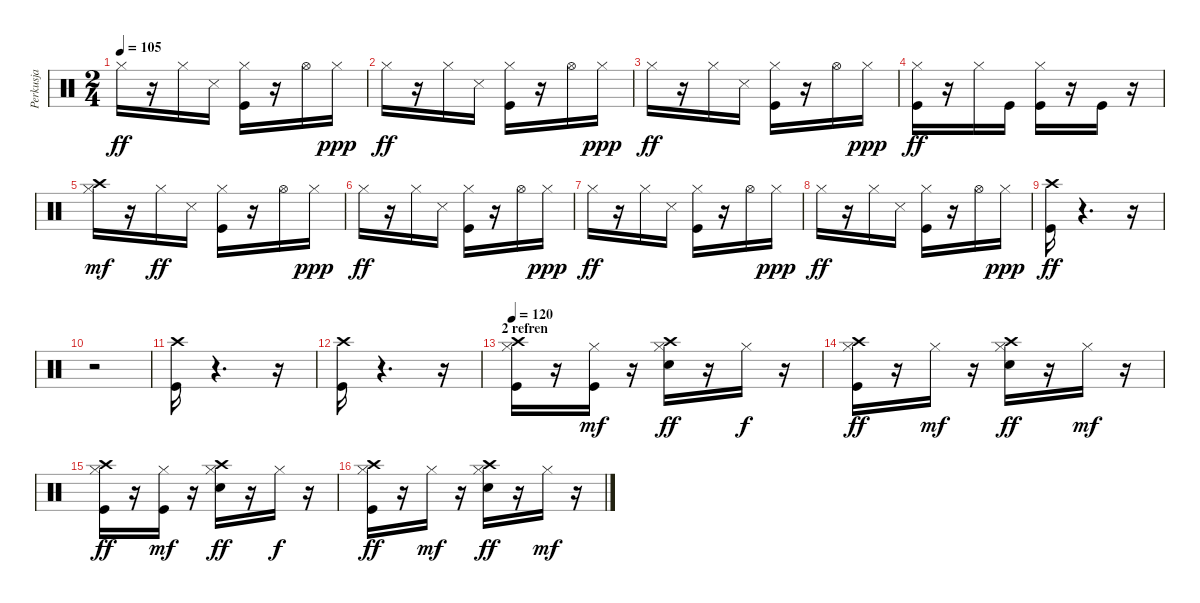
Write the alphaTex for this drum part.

\track ("Perkusja" "Perkusja") {instrument percussion}
\staff {score}
\articulation defaults
\ts (2 4)
\tempo 105
\clef neutral
\ks c "Hi-Hat (closed)".16{dy ff}
r.16 "Hi-Hat (closed)".16 "Snare (side stick) 3".16 ("Kick (hit)" "Hi-Hat (closed)").16 r.16 "Hi-Hat (open)".16 "Hi-Hat (closed)".16{dy ppp} |
"Hi-Hat (closed)".16{dy ff} r.16 "Hi-Hat (closed)".16 "Snare (side stick) 3".16 ("Kick (hit)" "Hi-Hat (closed)").16 r.16 "Hi-Hat (open)".16 "Hi-Hat (closed)".16{dy ppp} |
"Hi-Hat (closed)".16{dy ff} r.16 "Hi-Hat (closed)".16 "Snare (side stick) 3".16 ("Kick (hit)" "Hi-Hat (closed)").16 r.16 "Hi-Hat (open)".16 "Hi-Hat (closed)".16{dy ppp} |
("Kick (hit)" "Hi-Hat (closed)").16{dy ff} r.16 "Hi-Hat (closed)".16 "Kick (hit)".16 ("Kick (hit)" "Hi-Hat (closed)").16 r.16 "Kick (hit)".16 r.16 |
("Hi-Hat (closed)" "Crash high (hit)").16{dy mf} r.16 "Hi-Hat (closed)".16{dy ff} "Snare (side stick) 3".16 ("Kick (hit)" "Hi-Hat (closed)").16 r.16 "Hi-Hat (open)".16 "Hi-Hat (closed)".16{dy ppp} |
"Hi-Hat (closed)".16{dy ff} r.16 "Hi-Hat (closed)".16 "Snare (side stick) 3".16 ("Kick (hit)" "Hi-Hat (closed)").16 r.16 "Hi-Hat (open)".16 "Hi-Hat (closed)".16{dy ppp} |
"Hi-Hat (closed)".16{dy ff} r.16 "Hi-Hat (closed)".16 "Snare (side stick) 3".16 ("Kick (hit)" "Hi-Hat (closed)").16 r.16 "Hi-Hat (open)".16 "Hi-Hat (closed)".16{dy ppp} |
"Hi-Hat (closed)".16{dy ff} r.16 "Hi-Hat (closed)".16 "Snare (side stick) 3".16 ("Kick (hit)" "Hi-Hat (closed)").16 r.16 "Hi-Hat (open)".16 "Hi-Hat (closed)".16{dy ppp} |
("Kick (hit)" "Crash high (hit)").16{dy ff} r.4{d} r.16 |
r.2 |
("Kick (hit)" "Crash high (hit)").16 r.4{d} r.16 |
("Kick (hit)" "Crash high (hit)").16 r.4{d} r.16 |
\section ("" "2 refren")
\tempo 120
("Kick (hit)" "Hi-Hat (closed)" "Crash high (hit)").16 r.16 ("Kick (hit)" "Hi-Hat (closed)").16{dy mf} r.16 ("Snare (hit) 2" "Hi-Hat (closed)" "Crash high (hit)").16{dy ff} r.16 "Hi-Hat (closed)".16{dy f} r.16 |
("Kick (hit)" "Hi-Hat (closed)" "Crash high (hit)").16{dy ff} r.16 "Hi-Hat (closed)".16{dy mf} r.16 ("Snare (hit) 2" "Hi-Hat (closed)" "Crash high (hit)").16{dy ff} r.16 "Hi-Hat (closed)".16{dy mf} r.16 |
("Kick (hit)" "Hi-Hat (closed)" "Crash high (hit)").16{dy ff} r.16 ("Kick (hit)" "Hi-Hat (closed)").16{dy mf} r.16 ("Snare (hit) 2" "Hi-Hat (closed)" "Crash high (hit)").16{dy ff} r.16 "Hi-Hat (closed)".16{dy f} r.16 |
("Kick (hit)" "Hi-Hat (closed)" "Crash high (hit)").16{dy ff} r.16 "Hi-Hat (closed)".16{dy mf} r.16 ("Snare (hit) 2" "Hi-Hat (closed)" "Crash high (hit)").16{dy ff} r.16 "Hi-Hat (closed)".16{dy mf} r.16
